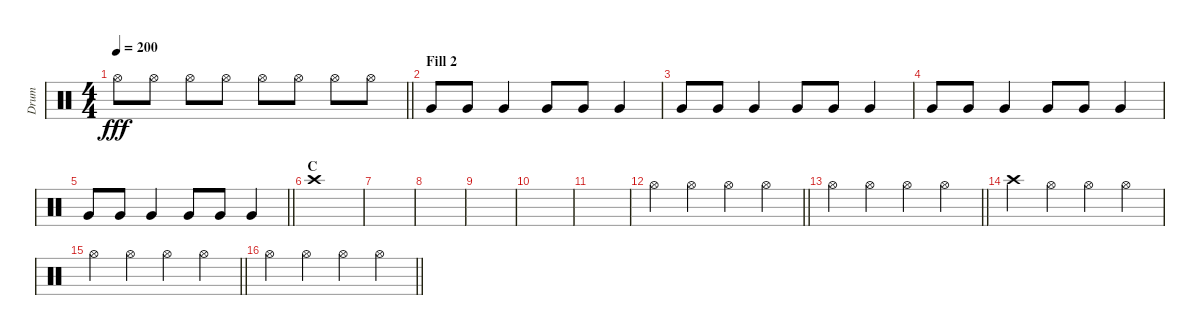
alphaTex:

\track ("Drum" "Drum") {instrument percussion}
\staff {score}
\articulation defaults
\ts (4 4)
\tempo 200
\clef neutral
\barLineRight lightlight
\ks c "Hi-Hat (open)".8{dy fff} "Hi-Hat (open)".8 "Hi-Hat (open)".8 "Hi-Hat (open)".8 "Hi-Hat (open)".8 "Hi-Hat (open)".8 "Hi-Hat (open)".8 "Hi-Hat (open)".8
|
\section ("" "Fill 2")
"Very Low Tom (hit)".8 "Very Low Tom (hit)".8 "Very Low Tom (hit)".4 "Very Low Tom (hit)".8 "Very Low Tom (hit)".8 "Very Low Tom (hit)".4 |
"Very Low Tom (hit)".8 "Very Low Tom (hit)".8 "Very Low Tom (hit)".4 "Very Low Tom (hit)".8 "Very Low Tom (hit)".8 "Very Low Tom (hit)".4 |
"Very Low Tom (hit)".8 "Very Low Tom (hit)".8 "Very Low Tom (hit)".4 "Very Low Tom (hit)".8 "Very Low Tom (hit)".8 "Very Low Tom (hit)".4 |
\barLineRight lightlight "Very Low Tom (hit)".8 "Very Low Tom (hit)".8 "Very Low Tom (hit)".4 "Very Low Tom (hit)".8 "Very Low Tom (hit)".8 "Very Low Tom (hit)".4
|
\section ("" "C")
"Crash high (hit)".1 |
|
|
|
|
|
\barLineRight lightlight "Hi-Hat (open)".4 "Hi-Hat (open)".4 "Hi-Hat (open)".4 "Hi-Hat (open)".4
|
\barLineRight lightlight "Hi-Hat (open)".4 "Hi-Hat (open)".4 "Hi-Hat (open)".4 "Hi-Hat (open)".4
|
\section ("" " ")
"Crash high (hit)".4 "Hi-Hat (open)".4 "Hi-Hat (open)".4 "Hi-Hat (open)".4 |
\barLineRight lightlight "Hi-Hat (open)".4 "Hi-Hat (open)".4 "Hi-Hat (open)".4 "Hi-Hat (open)".4
|
\barLineRight lightlight "Hi-Hat (open)".4 "Hi-Hat (open)".4 "Hi-Hat (open)".4 "Hi-Hat (open)".4
